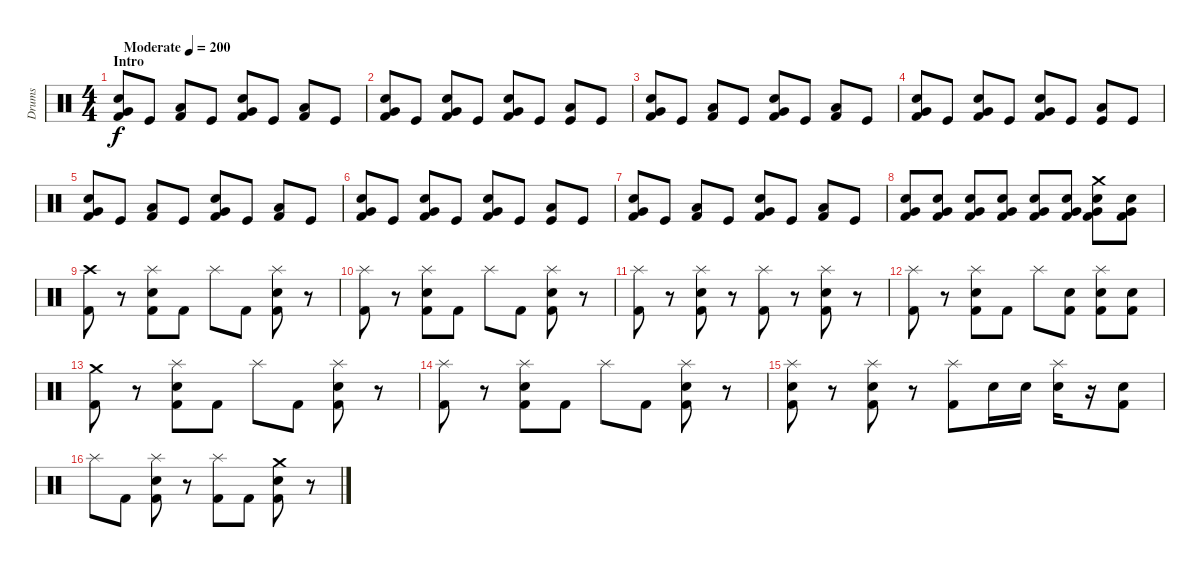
\track ("Drums" "Drums") {instrument percussion}
\staff {score}
\articulation defaults
\ts (4 4)
\section ("" "Intro")
\tempo (200 "Moderate")
\clef neutral
\ks c
("Snare (hit) 2" "Very Low Tom (hit)" "Kick (hit) 2").8{dy f} "Kick (hit)".8 ("Low Floor Tom (hit)" "Kick (hit) 2").8 "Kick (hit)".8 ("Snare (hit) 2" "Very Low Tom (hit)" "Kick (hit) 2").8 "Kick (hit)".8 ("Low Floor Tom (hit)" "Kick (hit) 2").8 "Kick (hit)".8 |
("Snare (hit) 2" "Very Low Tom (hit)" "Kick (hit) 2").8 "Kick (hit)".8 ("Snare (hit) 2" "Very Low Tom (hit)" "Kick (hit) 2").8 "Kick (hit)".8 ("Snare (hit) 2" "Very Low Tom (hit)" "Kick (hit) 2").8 "Kick (hit)".8 ("Low Floor Tom (hit)" "Kick (hit)").8 "Kick (hit)".8 |
("Snare (hit) 2" "Very Low Tom (hit)" "Kick (hit) 2").8 "Kick (hit)".8 ("Low Floor Tom (hit)" "Kick (hit) 2").8 "Kick (hit)".8 ("Snare (hit) 2" "Very Low Tom (hit)" "Kick (hit) 2").8 "Kick (hit)".8 ("Low Floor Tom (hit)" "Kick (hit) 2").8 "Kick (hit)".8 |
("Snare (hit) 2" "Very Low Tom (hit)" "Kick (hit) 2").8 "Kick (hit)".8 ("Snare (hit) 2" "Very Low Tom (hit)" "Kick (hit) 2").8 "Kick (hit)".8 ("Snare (hit) 2" "Very Low Tom (hit)" "Kick (hit) 2").8 "Kick (hit)".8 ("Low Floor Tom (hit)" "Kick (hit)").8 "Kick (hit)".8 |
("Snare (hit) 2" "Very Low Tom (hit)" "Kick (hit) 2").8 "Kick (hit)".8 ("Low Floor Tom (hit)" "Kick (hit) 2").8 "Kick (hit)".8 ("Snare (hit) 2" "Very Low Tom (hit)" "Kick (hit) 2").8 "Kick (hit)".8 ("Low Floor Tom (hit)" "Kick (hit) 2").8 "Kick (hit)".8 |
("Snare (hit) 2" "Very Low Tom (hit)" "Kick (hit) 2").8 "Kick (hit)".8 ("Snare (hit) 2" "Very Low Tom (hit)" "Kick (hit) 2").8 "Kick (hit)".8 ("Snare (hit) 2" "Very Low Tom (hit)" "Kick (hit) 2").8 "Kick (hit)".8 ("Low Floor Tom (hit)" "Kick (hit)").8 "Kick (hit)".8 |
("Snare (hit) 2" "Very Low Tom (hit)" "Kick (hit) 2").8 "Kick (hit)".8 ("Low Floor Tom (hit)" "Kick (hit) 2").8 "Kick (hit)".8 ("Snare (hit) 2" "Very Low Tom (hit)" "Kick (hit) 2").8 "Kick (hit)".8 ("Low Floor Tom (hit)" "Kick (hit) 2").8 "Kick (hit)".8 |
("Snare (hit) 2" "Very Low Tom (hit)" "Kick (hit) 2").8 ("Snare (hit) 2" "Very Low Tom (hit)" "Kick (hit) 2").8 ("Snare (hit) 2" "Very Low Tom (hit)" "Kick (hit) 2").8 ("Snare (hit) 2" "Very Low Tom (hit)" "Kick (hit) 2").8 ("Snare (hit) 2" "Very Low Tom (hit)" "Kick (hit) 2").8 ("Snare (hit) 2" "Very Low Tom (hit)" "Kick (hit) 2").8 ("Crash medium (hit)" "Snare (hit) 2" "Very Low Tom (hit)" "Kick (hit) 2").8 ("Snare (hit) 2" "Very Low Tom (hit)" "Kick (hit) 2").8 |
("Crash high (hit)" "Kick (hit) 2").8 r.8 ("Splash (hit)" "Snare (hit) 2" "Kick (hit) 2").8 "Kick (hit) 2".8 "Splash (hit)".8 "Kick (hit) 2".8 ("Splash (hit)" "Snare (hit) 2" "Kick (hit) 2").8 r.8 |
("Splash (hit)" "Kick (hit) 2").8 r.8 ("Splash (hit)" "Snare (hit) 2" "Kick (hit) 2").8 "Kick (hit) 2".8 "Splash (hit)".8 "Kick (hit) 2".8 ("Splash (hit)" "Snare (hit) 2" "Kick (hit) 2").8 r.8 |
("Splash (hit)" "Kick (hit) 2").8 r.8 ("Splash (hit)" "Snare (hit) 2" "Kick (hit) 2").8 r.8 ("Splash (hit)" "Kick (hit) 2").8 r.8 ("Splash (hit)" "Snare (hit) 2" "Kick (hit) 2").8 r.8 |
("Splash (hit)" "Kick (hit) 2").8 r.8 ("Splash (hit)" "Snare (hit) 2" "Kick (hit) 2").8 "Kick (hit) 2".8 "Splash (hit)".8 ("Snare (hit) 2" "Kick (hit) 2").8 ("Splash (hit)" "Snare (hit) 2" "Kick (hit) 2").8 ("Snare (hit) 2" "Kick (hit) 2").8 |
("Crash medium (hit)" "Kick (hit) 2").8 r.8 ("Splash (hit)" "Snare (hit) 2" "Kick (hit) 2").8 "Kick (hit) 2".8 "Splash (hit)".8 "Kick (hit) 2".8 ("Splash (hit)" "Snare (hit) 2" "Kick (hit) 2").8 r.8 |
("Splash (hit)" "Kick (hit) 2").8 r.8 ("Splash (hit)" "Snare (hit) 2" "Kick (hit) 2").8 "Kick (hit) 2".8 "Splash (hit)".8 "Kick (hit) 2".8 ("Splash (hit)" "Snare (hit) 2" "Kick (hit) 2").8 r.8 |
("Splash (hit)" "Snare (hit) 2" "Kick (hit) 2").8 r.8 ("Splash (hit)" "Snare (hit) 2" "Kick (hit) 2").8 r.8 ("Splash (hit)" "Kick (hit) 2").8 "Snare (hit) 2".16 "Snare (hit) 2".16 ("Splash (hit)" "Snare (hit) 2").16 r.16 ("Snare (hit) 2" "Kick (hit) 2").8 |
"Splash (hit)".8 "Kick (hit) 2".8 ("Splash (hit)" "Snare (hit) 2" "Kick (hit) 2").8 r.8 ("Splash (hit)" "Kick (hit) 2").8 "Kick (hit) 2".8 ("Crash medium (hit)" "Snare (hit) 2" "Kick (hit) 2").8 r.8
